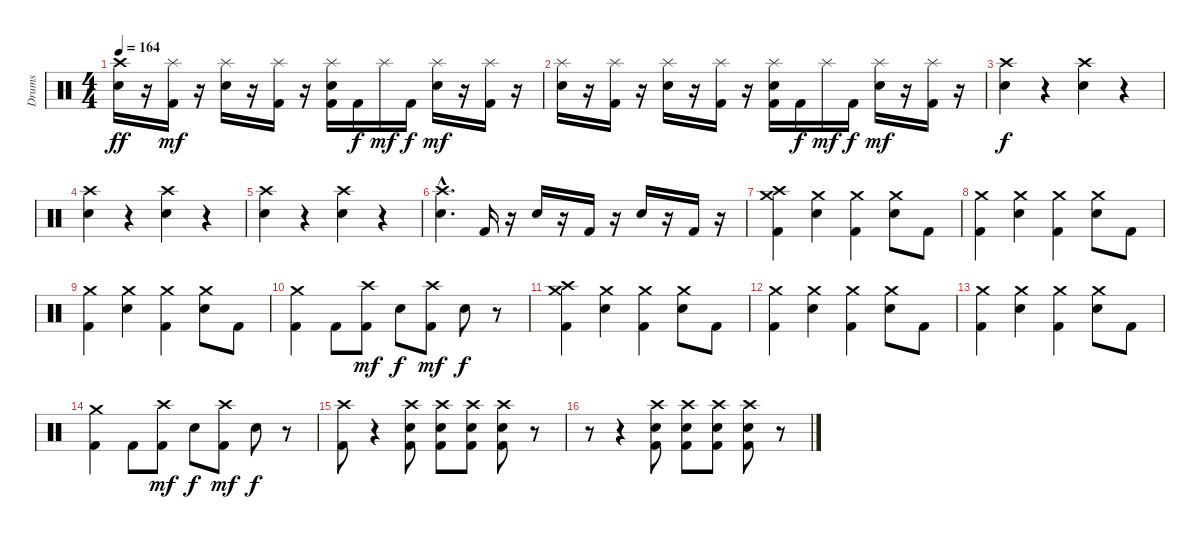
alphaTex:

\track ("Drums" "Drums") {instrument percussion}
\staff {score}
\articulation defaults
\ts (4 4)
\tempo 164
\clef neutral
\ks c
("Crash high (hit)" "Snare (hit) 2").16{dy ff} r.16 ("Splash (hit)" "Kick (hit) 2").16{dy mf} r.16 ("Splash (hit)" "Snare (hit) 2").16 r.16 ("Splash (hit)" "Kick (hit) 2").16 r.16 ("Splash (hit)" "Snare (hit) 2" "Kick (hit) 2").16 "Kick (hit) 2".16{dy f} "Splash (hit)".16{dy mf} "Kick (hit) 2".16{dy f} ("Splash (hit)" "Snare (hit) 2").16{dy mf} r.16 ("Splash (hit)" "Kick (hit) 2").16 r.16 |
("Splash (hit)" "Snare (hit) 2").16 r.16 ("Splash (hit)" "Kick (hit) 2").16 r.16 ("Splash (hit)" "Snare (hit) 2").16 r.16 ("Splash (hit)" "Kick (hit) 2").16 r.16 ("Splash (hit)" "Snare (hit) 2" "Kick (hit) 2").16 "Kick (hit) 2".16{dy f} "Splash (hit)".16{dy mf} "Kick (hit) 2".16{dy f} ("Splash (hit)" "Snare (hit) 2").16{dy mf} r.16 ("Splash (hit)" "Kick (hit) 2").16 r.16 |
("Crash high (hit)" "Snare (hit) 2").4{dy f} r.4 ("Crash high (hit)" "Snare (hit) 2").4 r.4 |
("Crash high (hit)" "Snare (hit) 2").4 r.4 ("Crash high (hit)" "Snare (hit) 2").4 r.4 |
("Crash high (hit)" "Snare (hit) 2").4 r.4 ("Crash high (hit)" "Snare (hit) 2").4 r.4 |
("Crash high (hit)"{hac} "Snare (hit) 2"{hac}).4{d} "Kick (hit) 2".16 r.16 "Snare (hit) 2".16 r.16 "Kick (hit) 2".16 r.16 "Snare (hit) 2".16 r.16 "Kick (hit) 2".16 r.16 |
("Crash medium (hit)" "Crash high (hit)" "Kick (hit) 2").4 ("Crash medium (hit)" "Snare (hit) 2").4 ("Crash medium (hit)" "Kick (hit) 2").4 ("Crash medium (hit)" "Snare (hit) 2").8 "Kick (hit) 2".8 |
("Crash medium (hit)" "Kick (hit) 2").4 ("Crash medium (hit)" "Snare (hit) 2").4 ("Crash medium (hit)" "Kick (hit) 2").4 ("Crash medium (hit)" "Snare (hit) 2").8 "Kick (hit) 2".8 |
("Crash medium (hit)" "Kick (hit) 2").4 ("Crash medium (hit)" "Snare (hit) 2").4 ("Crash medium (hit)" "Kick (hit) 2").4 ("Crash medium (hit)" "Snare (hit) 2").8 "Kick (hit) 2".8 |
("Crash medium (hit)" "Kick (hit) 2").4 "Kick (hit) 2".8 ("Crash high (hit)" "Kick (hit) 2").8{dy mf} "Snare (hit) 2".8{dy f} ("Crash high (hit)" "Kick (hit) 2").8{dy mf} "Snare (hit) 2".8{dy f} r.8 |
("Crash medium (hit)" "Crash high (hit)" "Kick (hit) 2").4 ("Crash medium (hit)" "Snare (hit) 2").4 ("Crash medium (hit)" "Kick (hit) 2").4 ("Crash medium (hit)" "Snare (hit) 2").8 "Kick (hit) 2".8 |
("Crash medium (hit)" "Kick (hit) 2").4 ("Crash medium (hit)" "Snare (hit) 2").4 ("Crash medium (hit)" "Kick (hit) 2").4 ("Crash medium (hit)" "Snare (hit) 2").8 "Kick (hit) 2".8 |
("Crash medium (hit)" "Kick (hit) 2").4 ("Crash medium (hit)" "Snare (hit) 2").4 ("Crash medium (hit)" "Kick (hit) 2").4 ("Crash medium (hit)" "Snare (hit) 2").8 "Kick (hit) 2".8 |
("Crash medium (hit)" "Kick (hit) 2").4 "Kick (hit) 2".8 ("Crash high (hit)" "Kick (hit) 2").8{dy mf} "Snare (hit) 2".8{dy f} ("Crash high (hit)" "Kick (hit) 2").8{dy mf} "Snare (hit) 2".8{dy f} r.8 |
("Crash high (hit)" "Kick (hit) 2").8 r.4 ("Crash high (hit)" "Snare (hit) 2" "Kick (hit) 2").8 ("Crash high (hit)" "Snare (hit) 2" "Kick (hit) 2").8 ("Crash high (hit)" "Snare (hit) 2" "Kick (hit) 2").8 ("Crash high (hit)" "Snare (hit) 2" "Kick (hit) 2").8 r.8 |
r.8 r.4 ("Crash high (hit)" "Snare (hit) 2" "Kick (hit) 2").8 ("Crash high (hit)" "Snare (hit) 2" "Kick (hit) 2").8 ("Crash high (hit)" "Snare (hit) 2" "Kick (hit) 2").8 ("Crash high (hit)" "Snare (hit) 2" "Kick (hit) 2").8 r.8
